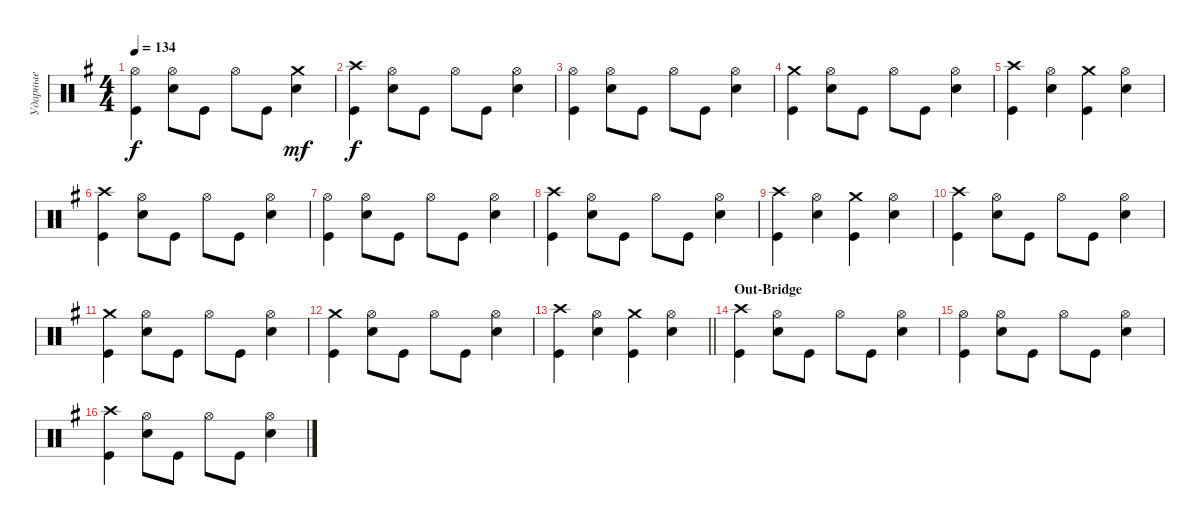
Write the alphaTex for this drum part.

\track ("Ударные" "Ударные") {instrument percussion}
\staff {score}
\articulation defaults
\ts (4 4)
\tempo 134
\clef neutral
\ks eminor
("Kick (hit)" "Hi-Hat (open)").4{dy f} ("Snare (hit) 2" "Hi-Hat (open)").8 "Kick (hit)".8 "Hi-Hat (open)".8 "Kick (hit)".8 ("Snare (hit) 2" "Crash medium (hit)").4{dy mf} |
("Kick (hit)" "Crash high (hit)").4{dy f} ("Snare (hit) 2" "Hi-Hat (open)").8 "Kick (hit)".8 "Hi-Hat (open)".8 "Kick (hit)".8 ("Snare (hit) 2" "Hi-Hat (open)").4 |
("Kick (hit)" "Hi-Hat (open)").4 ("Snare (hit) 2" "Hi-Hat (open)").8 "Kick (hit)".8 "Hi-Hat (open)".8 "Kick (hit)".8 ("Snare (hit) 2" "Hi-Hat (open)").4 |
("Kick (hit)" "Crash medium (hit)").4 ("Snare (hit) 2" "Hi-Hat (open)").8 "Kick (hit)".8 "Hi-Hat (open)".8 "Kick (hit)".8 ("Snare (hit) 2" "Hi-Hat (open)").4 |
("Kick (hit)" "Crash high (hit)").4 ("Snare (hit) 2" "Hi-Hat (open)").4 ("Crash medium (hit)" "Kick (hit)").4 ("Snare (hit) 2" "Hi-Hat (open)").4 |
("Kick (hit)" "Crash high (hit)").4 ("Snare (hit) 2" "Hi-Hat (open)").8 "Kick (hit)".8 "Hi-Hat (open)".8 "Kick (hit)".8 ("Snare (hit) 2" "Hi-Hat (open)").4 |
("Kick (hit)" "Hi-Hat (open)").4 ("Snare (hit) 2" "Hi-Hat (open)").8 "Kick (hit)".8 "Hi-Hat (open)".8 "Kick (hit)".8 ("Snare (hit) 2" "Hi-Hat (open)").4 |
("Kick (hit)" "Crash high (hit)").4 ("Snare (hit) 2" "Hi-Hat (open)").8 "Kick (hit)".8 "Hi-Hat (open)".8 "Kick (hit)".8 ("Snare (hit) 2" "Hi-Hat (open)").4 |
("Kick (hit)" "Crash high (hit)").4 ("Snare (hit) 2" "Hi-Hat (open)").4 ("Crash medium (hit)" "Kick (hit)").4 ("Snare (hit) 2" "Hi-Hat (open)").4 |
("Kick (hit)" "Crash high (hit)").4 ("Snare (hit) 2" "Hi-Hat (open)").8 "Kick (hit)".8 "Hi-Hat (open)".8 "Kick (hit)".8 ("Snare (hit) 2" "Hi-Hat (open)").4 |
("Kick (hit)" "Crash medium (hit)").4 ("Snare (hit) 2" "Hi-Hat (open)").8 "Kick (hit)".8 "Hi-Hat (open)".8 "Kick (hit)".8 ("Snare (hit) 2" "Hi-Hat (open)").4 |
("Kick (hit)" "Crash medium (hit)").4 ("Snare (hit) 2" "Hi-Hat (open)").8 "Kick (hit)".8 "Hi-Hat (open)".8 "Kick (hit)".8 ("Snare (hit) 2" "Hi-Hat (open)").4 |
\barLineRight lightlight
("Kick (hit)" "Crash high (hit)").4 ("Snare (hit) 2" "Hi-Hat (open)").4 ("Crash medium (hit)" "Kick (hit)").4 ("Snare (hit) 2" "Hi-Hat (open)").4 |
\section ("" "Out-Bridge")
("Kick (hit)" "Crash high (hit)").4 ("Snare (hit) 2" "Hi-Hat (open)").8 "Kick (hit)".8 "Hi-Hat (open)".8 "Kick (hit)".8 ("Snare (hit) 2" "Hi-Hat (open)").4 |
("Kick (hit)" "Hi-Hat (open)").4 ("Snare (hit) 2" "Hi-Hat (open)").8 "Kick (hit)".8 "Hi-Hat (open)".8 "Kick (hit)".8 ("Snare (hit) 2" "Hi-Hat (open)").4 |
("Kick (hit)" "Crash high (hit)").4 ("Snare (hit) 2" "Hi-Hat (open)").8 "Kick (hit)".8 "Hi-Hat (open)".8 "Kick (hit)".8 ("Snare (hit) 2" "Hi-Hat (open)").4
